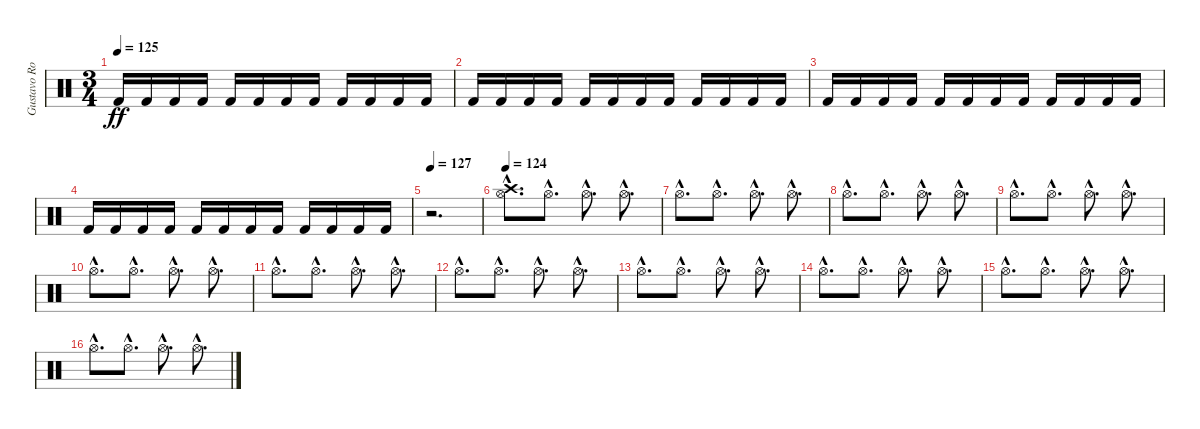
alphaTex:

\track ("Gustavo Rowek 1" "Gustavo Ro") {instrument percussion}
\staff {score}
\articulation defaults
\ts (3 4)
\tempo 125
\clef neutral
\ks c "Kick (hit) 2".16{dy ff} "Kick (hit) 2".16 "Kick (hit) 2".16 "Kick (hit) 2".16 "Kick (hit) 2".16 "Kick (hit) 2".16 "Kick (hit) 2".16 "Kick (hit) 2".16 "Kick (hit) 2".16 "Kick (hit) 2".16 "Kick (hit) 2".16 "Kick (hit) 2".16
|
"Kick (hit) 2".16 "Kick (hit) 2".16 "Kick (hit) 2".16 "Kick (hit) 2".16 "Kick (hit) 2".16 "Kick (hit) 2".16 "Kick (hit) 2".16 "Kick (hit) 2".16 "Kick (hit) 2".16 "Kick (hit) 2".16 "Kick (hit) 2".16 "Kick (hit) 2".16 |
"Kick (hit) 2".16 "Kick (hit) 2".16 "Kick (hit) 2".16 "Kick (hit) 2".16 "Kick (hit) 2".16 "Kick (hit) 2".16 "Kick (hit) 2".16 "Kick (hit) 2".16 "Kick (hit) 2".16 "Kick (hit) 2".16 "Kick (hit) 2".16 "Kick (hit) 2".16 |
"Kick (hit) 2".16 "Kick (hit) 2".16 "Kick (hit) 2".16 "Kick (hit) 2".16 "Kick (hit) 2".16 "Kick (hit) 2".16 "Kick (hit) 2".16 "Kick (hit) 2".16 "Kick (hit) 2".16 "Kick (hit) 2".16 "Kick (hit) 2".16 "Kick (hit) 2".16 |
\tempo 127
r.2{d} |
\tempo 124
("Hi-Hat (open)"{hac} "Crash high (hit)"{hac}).8{d} "Hi-Hat (open)"{hac}.8{d} "Hi-Hat (open)"{hac}.8{d} "Hi-Hat (open)"{hac}.8{d} |
"Hi-Hat (open)"{hac}.8{d} "Hi-Hat (open)"{hac}.8{d} "Hi-Hat (open)"{hac}.8{d} "Hi-Hat (open)"{hac}.8{d} |
"Hi-Hat (open)"{hac}.8{d} "Hi-Hat (open)"{hac}.8{d} "Hi-Hat (open)"{hac}.8{d} "Hi-Hat (open)"{hac}.8{d} |
"Hi-Hat (open)"{hac}.8{d} "Hi-Hat (open)"{hac}.8{d} "Hi-Hat (open)"{hac}.8{d} "Hi-Hat (open)"{hac}.8{d} |
"Hi-Hat (open)"{hac}.8{d} "Hi-Hat (open)"{hac}.8{d} "Hi-Hat (open)"{hac}.8{d} "Hi-Hat (open)"{hac}.8{d} |
"Hi-Hat (open)"{hac}.8{d} "Hi-Hat (open)"{hac}.8{d} "Hi-Hat (open)"{hac}.8{d} "Hi-Hat (open)"{hac}.8{d} |
"Hi-Hat (open)"{hac}.8{d} "Hi-Hat (open)"{hac}.8{d} "Hi-Hat (open)"{hac}.8{d} "Hi-Hat (open)"{hac}.8{d} |
"Hi-Hat (open)"{hac}.8{d} "Hi-Hat (open)"{hac}.8{d} "Hi-Hat (open)"{hac}.8{d} "Hi-Hat (open)"{hac}.8{d} |
"Hi-Hat (open)"{hac}.8{d} "Hi-Hat (open)"{hac}.8{d} "Hi-Hat (open)"{hac}.8{d} "Hi-Hat (open)"{hac}.8{d} |
"Hi-Hat (open)"{hac}.8{d} "Hi-Hat (open)"{hac}.8{d} "Hi-Hat (open)"{hac}.8{d} "Hi-Hat (open)"{hac}.8{d} |
"Hi-Hat (open)"{hac}.8{d} "Hi-Hat (open)"{hac}.8{d} "Hi-Hat (open)"{hac}.8{d} "Hi-Hat (open)"{hac}.8{d}
